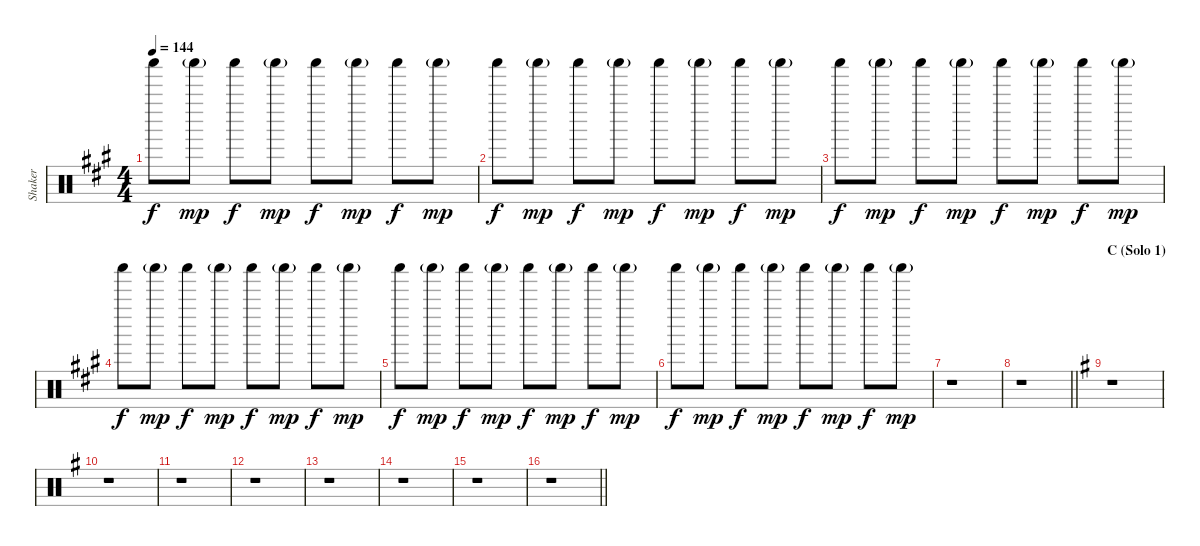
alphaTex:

\track ("Shaker" "Shaker") {instrument percussion}
\staff {score}
\articulation defaults
\ts (4 4)
\tempo 144
\clef neutral
\ks a "Shaker (hit)".8{dy f} "Shaker (hit)"{g}.8{dy mp} "Shaker (hit)".8{dy f} "Shaker (hit)"{g}.8{dy mp} "Shaker (hit)".8{dy f} "Shaker (hit)"{g}.8{dy mp} "Shaker (hit)".8{dy f} "Shaker (hit)"{g}.8{dy mp}
|
"Shaker (hit)".8{dy f} "Shaker (hit)"{g}.8{dy mp} "Shaker (hit)".8{dy f} "Shaker (hit)"{g}.8{dy mp} "Shaker (hit)".8{dy f} "Shaker (hit)"{g}.8{dy mp} "Shaker (hit)".8{dy f} "Shaker (hit)"{g}.8{dy mp} |
"Shaker (hit)".8{dy f} "Shaker (hit)"{g}.8{dy mp} "Shaker (hit)".8{dy f} "Shaker (hit)"{g}.8{dy mp} "Shaker (hit)".8{dy f} "Shaker (hit)"{g}.8{dy mp} "Shaker (hit)".8{dy f} "Shaker (hit)"{g}.8{dy mp} |
"Shaker (hit)".8{dy f} "Shaker (hit)"{g}.8{dy mp} "Shaker (hit)".8{dy f} "Shaker (hit)"{g}.8{dy mp} "Shaker (hit)".8{dy f} "Shaker (hit)"{g}.8{dy mp} "Shaker (hit)".8{dy f} "Shaker (hit)"{g}.8{dy mp} |
"Shaker (hit)".8{dy f} "Shaker (hit)"{g}.8{dy mp} "Shaker (hit)".8{dy f} "Shaker (hit)"{g}.8{dy mp} "Shaker (hit)".8{dy f} "Shaker (hit)"{g}.8{dy mp} "Shaker (hit)".8{dy f} "Shaker (hit)"{g}.8{dy mp} |
"Shaker (hit)".8{dy f} "Shaker (hit)"{g}.8{dy mp} "Shaker (hit)".8{dy f} "Shaker (hit)"{g}.8{dy mp} "Shaker (hit)".8{dy f} "Shaker (hit)"{g}.8{dy mp} "Shaker (hit)".8{dy f} "Shaker (hit)"{g}.8{dy mp} |
r.1 |
\barLineRight lightlight
r.1 |
\section ("" "C (Solo 1)")
\ks g
r.1 |
r.1 |
r.1 |
r.1 |
r.1 |
r.1 |
r.1 |
\barLineRight lightlight
r.1
